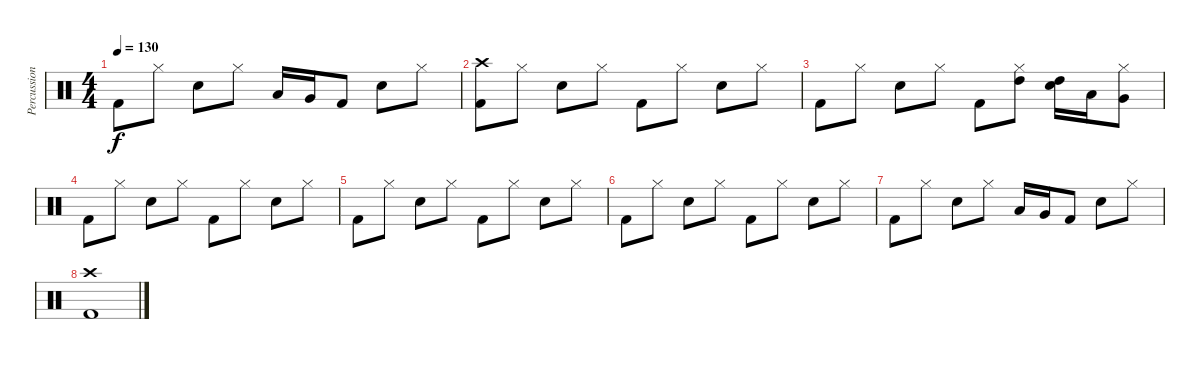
\track ("Percussion" "Percussion") {instrument percussion}
\staff {score}
\articulation defaults
\ts (4 4)
\tempo 130
\clef neutral
\ks c "Kick (hit) 2".8{dy f} "Hi-Hat (closed)".8 "Electric Snare (hit)".8 "Hi-Hat (closed)".8 "Low Tom (hit)".16 "Very Low Tom (hit)".16 "Kick (hit) 2".8 "Electric Snare (hit)".8 "Hi-Hat (closed)".8
|
("Crash high (hit)" "Kick (hit) 2").8 "Hi-Hat (closed)".8 "Electric Snare (hit)".8 "Hi-Hat (closed)".8 "Kick (hit) 2".8 "Hi-Hat (closed)".8 "Electric Snare (hit)".8 "Hi-Hat (closed)".8 |
"Kick (hit) 2".8 "Hi-Hat (closed)".8 "Electric Snare (hit)".8 "Hi-Hat (closed)".8 "Kick (hit) 2".8 ("Hi-Hat (closed)" "High Tom (hit)").8 ("Electric Snare (hit)" "High Tom (hit)").16 "Low Tom (hit)".16 ("Hi-Hat (closed)" "Very Low Tom (hit)").8 |
"Kick (hit) 2".8 "Hi-Hat (closed)".8 "Electric Snare (hit)".8 "Hi-Hat (closed)".8 "Kick (hit) 2".8 "Hi-Hat (closed)".8 "Electric Snare (hit)".8 "Hi-Hat (closed)".8 |
"Kick (hit) 2".8 "Hi-Hat (closed)".8 "Electric Snare (hit)".8 "Hi-Hat (closed)".8 "Kick (hit) 2".8 "Hi-Hat (closed)".8 "Electric Snare (hit)".8 "Hi-Hat (closed)".8 |
"Kick (hit) 2".8 "Hi-Hat (closed)".8 "Electric Snare (hit)".8 "Hi-Hat (closed)".8 "Kick (hit) 2".8 "Hi-Hat (closed)".8 "Electric Snare (hit)".8 "Hi-Hat (closed)".8 |
"Kick (hit) 2".8 "Hi-Hat (closed)".8 "Electric Snare (hit)".8 "Hi-Hat (closed)".8 "Low Tom (hit)".16 "Very Low Tom (hit)".16 "Kick (hit) 2".8 "Electric Snare (hit)".8 "Hi-Hat (closed)".8 |
("Crash high (hit)" "Kick (hit) 2").1
